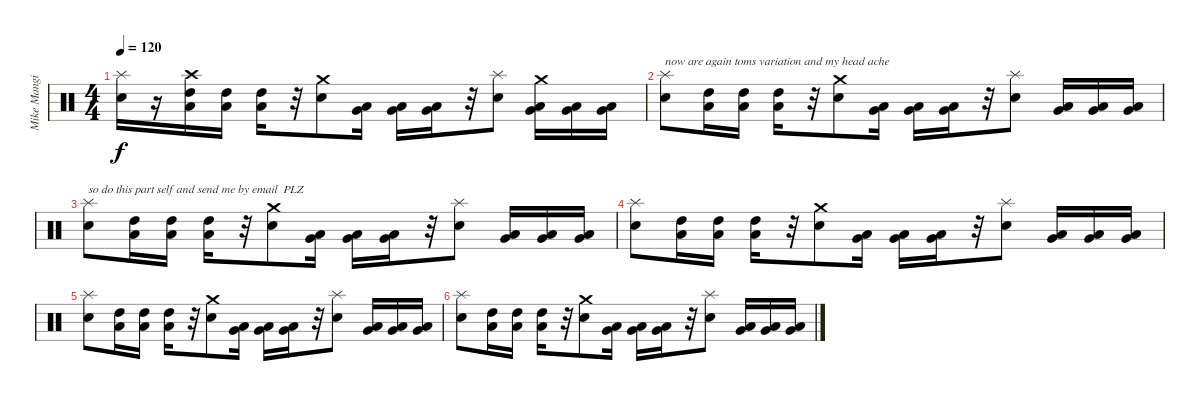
\track ("Mike Mangini" "Mike Mangi") {instrument percussion}
\staff {score}
\articulation defaults
\ts (4 4)
\tempo 120
\clef neutral
\ks c
("Splash (hit)" "Snare (hit) 2").16{dy f} r.16 ("Crash high (hit)" "Low Tom (hit)" "High Tom (hit)").16 ("Low Tom (hit)" "High Tom (hit)").16 ("Low Tom (hit)" "High Tom (hit)").16 r.32 ("Crash medium (hit)" "Snare (hit) 2").8 ("Low Tom (hit)" "Very Low Tom (hit)").16 ("Low Tom (hit)" "Very Low Tom (hit)").16 ("Low Tom (hit)" "Very Low Tom (hit)").16 r.32 ("Splash (hit)" "Snare (hit) 2").8 ("Crash medium (hit)" "Very Low Tom (hit)" "Low Floor Tom (hit)").16 ("Very Low Tom (hit)" "Low Floor Tom (hit)").16 ("Very Low Tom (hit)" "Low Floor Tom (hit)").16 |
("Splash (hit)" "Snare (hit) 2").8{txt "now are again toms variation and my head ache"} ("Low Tom (hit)" "High Tom (hit)").16 ("Low Tom (hit)" "High Tom (hit)").16 ("Low Tom (hit)" "High Tom (hit)").16 r.32 ("Crash medium (hit)" "Snare (hit) 2").8 ("Low Tom (hit)" "Very Low Tom (hit)").16 ("Low Tom (hit)" "Very Low Tom (hit)").16 ("Low Tom (hit)" "Very Low Tom (hit)").16 r.32 ("Splash (hit)" "Snare (hit) 2").8 ("Very Low Tom (hit)" "Low Floor Tom (hit)").16 ("Very Low Tom (hit)" "Low Floor Tom (hit)").16 ("Very Low Tom (hit)" "Low Floor Tom (hit)").16 |
("Splash (hit)" "Snare (hit) 2").8{txt "so do this part self and send me by email  PLZ"} ("Low Tom (hit)" "High Tom (hit)").16 ("Low Tom (hit)" "High Tom (hit)").16 ("Low Tom (hit)" "High Tom (hit)").16 r.32 ("Crash medium (hit)" "Snare (hit) 2").8 ("Low Tom (hit)" "Very Low Tom (hit)").16 ("Low Tom (hit)" "Very Low Tom (hit)").16 ("Low Tom (hit)" "Very Low Tom (hit)").16 r.32 ("Splash (hit)" "Snare (hit) 2").8 ("Very Low Tom (hit)" "Low Floor Tom (hit)").16 ("Very Low Tom (hit)" "Low Floor Tom (hit)").16 ("Very Low Tom (hit)" "Low Floor Tom (hit)").16 |
("Splash (hit)" "Snare (hit) 2").8 ("Low Tom (hit)" "High Tom (hit)").16 ("Low Tom (hit)" "High Tom (hit)").16 ("Low Tom (hit)" "High Tom (hit)").16 r.32 ("Crash medium (hit)" "Snare (hit) 2").8 ("Low Tom (hit)" "Very Low Tom (hit)").16 ("Low Tom (hit)" "Very Low Tom (hit)").16 ("Low Tom (hit)" "Very Low Tom (hit)").16 r.32 ("Splash (hit)" "Snare (hit) 2").8 ("Very Low Tom (hit)" "Low Floor Tom (hit)").16 ("Very Low Tom (hit)" "Low Floor Tom (hit)").16 ("Very Low Tom (hit)" "Low Floor Tom (hit)").16 |
("Splash (hit)" "Snare (hit) 2").8 ("Low Tom (hit)" "High Tom (hit)").16 ("Low Tom (hit)" "High Tom (hit)").16 ("Low Tom (hit)" "High Tom (hit)").16 r.32 ("Crash medium (hit)" "Snare (hit) 2").8 ("Low Tom (hit)" "Very Low Tom (hit)").16 ("Low Tom (hit)" "Very Low Tom (hit)").16 ("Low Tom (hit)" "Very Low Tom (hit)").16 r.32 ("Splash (hit)" "Snare (hit) 2").8 ("Very Low Tom (hit)" "Low Floor Tom (hit)").16 ("Very Low Tom (hit)" "Low Floor Tom (hit)").16 ("Very Low Tom (hit)" "Low Floor Tom (hit)").16 |
("Splash (hit)" "Snare (hit) 2").8 ("Low Tom (hit)" "High Tom (hit)").16 ("Low Tom (hit)" "High Tom (hit)").16 ("Low Tom (hit)" "High Tom (hit)").16 r.32 ("Crash medium (hit)" "Snare (hit) 2").8 ("Low Tom (hit)" "Very Low Tom (hit)").16 ("Low Tom (hit)" "Very Low Tom (hit)").16 ("Low Tom (hit)" "Very Low Tom (hit)").16 r.32 ("Splash (hit)" "Snare (hit) 2").8 ("Very Low Tom (hit)" "Low Floor Tom (hit)").16 ("Very Low Tom (hit)" "Low Floor Tom (hit)").16 ("Very Low Tom (hit)" "Low Floor Tom (hit)").16
